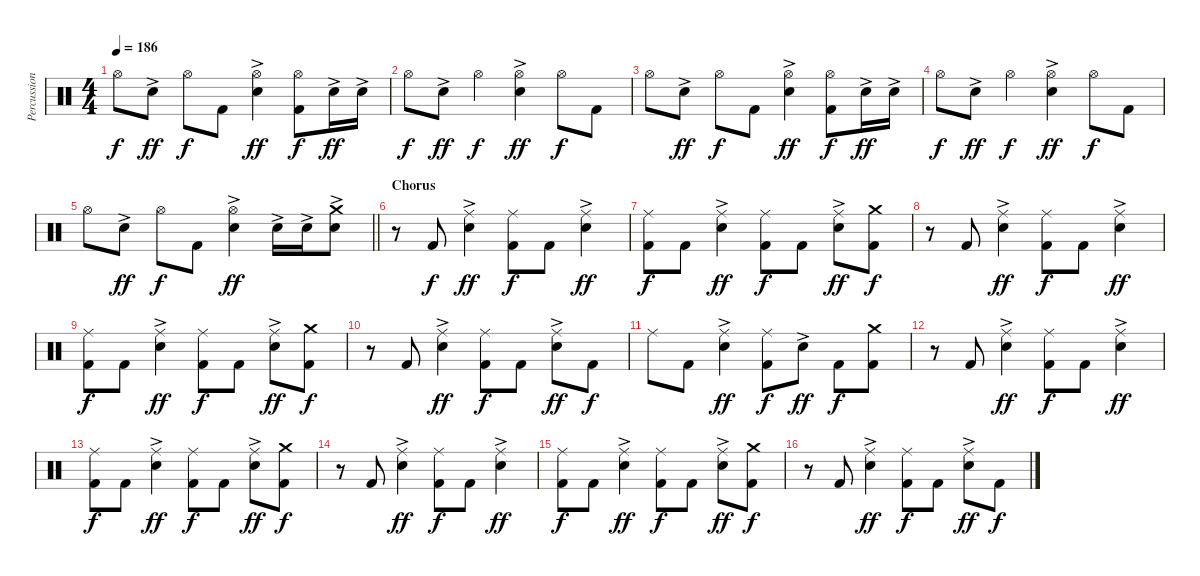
\track ("Percussion" "Percussion") {instrument percussion}
\staff {score}
\articulation defaults
\ts (4 4)
\tempo 186
\clef neutral
\ks c "Hi-Hat (open)".8{dy f} "Electric Snare (hit)"{ac}.8{dy ff} "Hi-Hat (open)".8{dy f} "Kick (hit) 2".8
("Hi-Hat (open)" "Electric Snare (hit)"{ac}).4{dy ff} ("Hi-Hat (open)" "Kick (hit) 2").8{dy f} "Electric Snare (hit)"{ac}.16{dy ff} "Electric Snare (hit)"{ac}.16 |
"Hi-Hat (open)".8{dy f} "Electric Snare (hit)"{ac}.8{dy ff} "Hi-Hat (open)".4{dy f} ("Hi-Hat (open)" "Electric Snare (hit)"{ac}).4{dy ff} "Hi-Hat (open)".8{dy f} "Kick (hit) 2".8 |
"Hi-Hat (open)".8 "Electric Snare (hit)"{ac}.8{dy ff} "Hi-Hat (open)".8{dy f} "Kick (hit) 2".8 ("Hi-Hat (open)" "Electric Snare (hit)"{ac}).4{dy ff} ("Hi-Hat (open)" "Kick (hit) 2").8{dy f} "Electric Snare (hit)"{ac}.16{dy ff} "Electric Snare (hit)"{ac}.16 |
"Hi-Hat (open)".8{dy f} "Electric Snare (hit)"{ac}.8{dy ff} "Hi-Hat (open)".4{dy f} ("Hi-Hat (open)" "Electric Snare (hit)"{ac}).4{dy ff} "Hi-Hat (open)".8{dy f} "Kick (hit) 2".8 |
\barLineRight lightlight "Hi-Hat (open)".8 "Electric Snare (hit)"{ac}.8{dy ff} "Hi-Hat (open)".8{dy f} "Kick (hit) 2".8
("Hi-Hat (open)" "Electric Snare (hit)"{ac}).4{dy ff} "Electric Snare (hit)"{ac}.16 "Electric Snare (hit)"{ac}.16 ("Crash medium (hit)" "Electric Snare (hit)"{ac}).8 |
\section ("" "Chorus")
r.8 "Kick (hit) 2".8{dy f} ("Ride (middle)" "Electric Snare (hit)"{ac}).4{dy ff} ("Ride (middle)" "Kick (hit) 2").8{dy f} "Kick (hit) 2".8 ("Ride (middle)" "Electric Snare (hit)"{ac}).4{dy ff} |
("Ride (middle)" "Kick (hit) 2").8{dy f} "Kick (hit) 2".8 ("Ride (middle)" "Electric Snare (hit)"{ac}).4{dy ff} ("Ride (middle)" "Kick (hit) 2").8{dy f} "Kick (hit) 2".8 ("Ride (middle)" "Electric Snare (hit)"{ac}).8{dy ff} ("Crash medium (hit)" "Kick (hit) 2").8{dy f} |
r.8 "Kick (hit) 2".8 ("Ride (middle)" "Electric Snare (hit)"{ac}).4{dy ff} ("Ride (middle)" "Kick (hit) 2").8{dy f} "Kick (hit) 2".8 ("Ride (middle)" "Electric Snare (hit)"{ac}).4{dy ff} |
("Ride (middle)" "Kick (hit) 2").8{dy f} "Kick (hit) 2".8 ("Ride (middle)" "Electric Snare (hit)"{ac}).4{dy ff} ("Ride (middle)" "Kick (hit) 2").8{dy f} "Kick (hit) 2".8 ("Ride (middle)" "Electric Snare (hit)"{ac}).8{dy ff} ("Crash medium (hit)" "Kick (hit) 2").8{dy f} |
r.8 "Kick (hit) 2".8 ("Ride (middle)" "Electric Snare (hit)"{ac}).4{dy ff} ("Ride (middle)" "Kick (hit) 2").8{dy f} "Kick (hit) 2".8 ("Ride (middle)" "Electric Snare (hit)"{ac}).8{dy ff} "Kick (hit) 2".8{dy f} |
"Ride (middle)".8 "Kick (hit) 2".8 ("Ride (middle)" "Electric Snare (hit)"{ac}).4{dy ff} ("Ride (middle)" "Kick (hit) 2").8{dy f} "Electric Snare (hit)"{ac}.8{dy ff} "Kick (hit) 2".8{dy f} ("Crash medium (hit)" "Kick (hit) 2").8 |
r.8 "Kick (hit) 2".8 ("Ride (middle)" "Electric Snare (hit)"{ac}).4{dy ff} ("Ride (middle)" "Kick (hit) 2").8{dy f} "Kick (hit) 2".8 ("Ride (middle)" "Electric Snare (hit)"{ac}).4{dy ff} |
("Ride (middle)" "Kick (hit) 2").8{dy f} "Kick (hit) 2".8 ("Ride (middle)" "Electric Snare (hit)"{ac}).4{dy ff} ("Ride (middle)" "Kick (hit) 2").8{dy f} "Kick (hit) 2".8 ("Ride (middle)" "Electric Snare (hit)"{ac}).8{dy ff} ("Crash medium (hit)" "Kick (hit) 2").8{dy f} |
r.8 "Kick (hit) 2".8 ("Ride (middle)" "Electric Snare (hit)"{ac}).4{dy ff} ("Ride (middle)" "Kick (hit) 2").8{dy f} "Kick (hit) 2".8 ("Ride (middle)" "Electric Snare (hit)"{ac}).4{dy ff} |
("Ride (middle)" "Kick (hit) 2").8{dy f} "Kick (hit) 2".8 ("Ride (middle)" "Electric Snare (hit)"{ac}).4{dy ff} ("Ride (middle)" "Kick (hit) 2").8{dy f} "Kick (hit) 2".8 ("Ride (middle)" "Electric Snare (hit)"{ac}).8{dy ff} ("Crash medium (hit)" "Kick (hit) 2").8{dy f} |
r.8 "Kick (hit) 2".8 ("Ride (middle)" "Electric Snare (hit)"{ac}).4{dy ff} ("Ride (middle)" "Kick (hit) 2").8{dy f} "Kick (hit) 2".8 ("Ride (middle)" "Electric Snare (hit)"{ac}).8{dy ff} "Kick (hit) 2".8{dy f}
